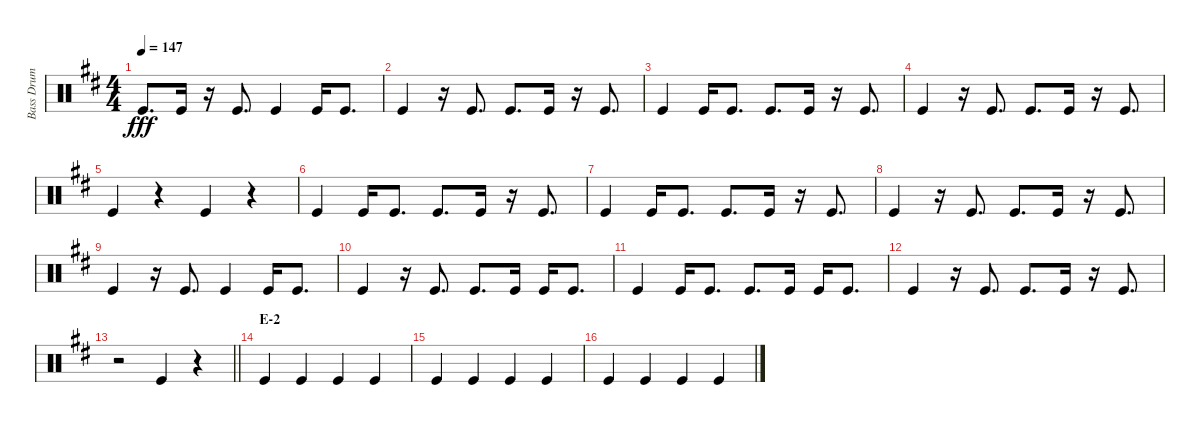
\track ("Bass Drum" "Bass Drum") {instrument percussion}
\staff {score}
\articulation defaults
\ts (4 4)
\tempo 147
\clef neutral
\ks d "Kick (hit)".8{d dy fff} "Kick (hit)".16
r.16 "Kick (hit)".8{d} "Kick (hit)".4 "Kick (hit)".16 "Kick (hit)".8{d} |
"Kick (hit)".4 r.16 "Kick (hit)".8{d} "Kick (hit)".8{d} "Kick (hit)".16 r.16 "Kick (hit)".8{d} |
"Kick (hit)".4 "Kick (hit)".16 "Kick (hit)".8{d} "Kick (hit)".8{d} "Kick (hit)".16 r.16 "Kick (hit)".8{d} |
"Kick (hit)".4 r.16 "Kick (hit)".8{d} "Kick (hit)".8{d} "Kick (hit)".16 r.16 "Kick (hit)".8{d} |
"Kick (hit)".4 r.4 "Kick (hit)".4 r.4 |
"Kick (hit)".4 "Kick (hit)".16 "Kick (hit)".8{d} "Kick (hit)".8{d} "Kick (hit)".16 r.16 "Kick (hit)".8{d} |
"Kick (hit)".4 "Kick (hit)".16 "Kick (hit)".8{d} "Kick (hit)".8{d} "Kick (hit)".16 r.16 "Kick (hit)".8{d} |
"Kick (hit)".4 r.16 "Kick (hit)".8{d} "Kick (hit)".8{d} "Kick (hit)".16 r.16 "Kick (hit)".8{d} |
"Kick (hit)".4 r.16 "Kick (hit)".8{d} "Kick (hit)".4 "Kick (hit)".16 "Kick (hit)".8{d} |
"Kick (hit)".4 r.16 "Kick (hit)".8{d} "Kick (hit)".8{d} "Kick (hit)".16 "Kick (hit)".16 "Kick (hit)".8{d} |
"Kick (hit)".4 "Kick (hit)".16 "Kick (hit)".8{d} "Kick (hit)".8{d} "Kick (hit)".16 "Kick (hit)".16 "Kick (hit)".8{d} |
"Kick (hit)".4 r.16 "Kick (hit)".8{d} "Kick (hit)".8{d} "Kick (hit)".16 r.16 "Kick (hit)".8{d} |
\barLineRight lightlight
r.2 "Kick (hit)".4 r.4 |
\section ("" "E-2")
"Kick (hit)".4 "Kick (hit)".4 "Kick (hit)".4 "Kick (hit)".4 |
"Kick (hit)".4 "Kick (hit)".4 "Kick (hit)".4 "Kick (hit)".4 |
"Kick (hit)".4 "Kick (hit)".4 "Kick (hit)".4 "Kick (hit)".4
